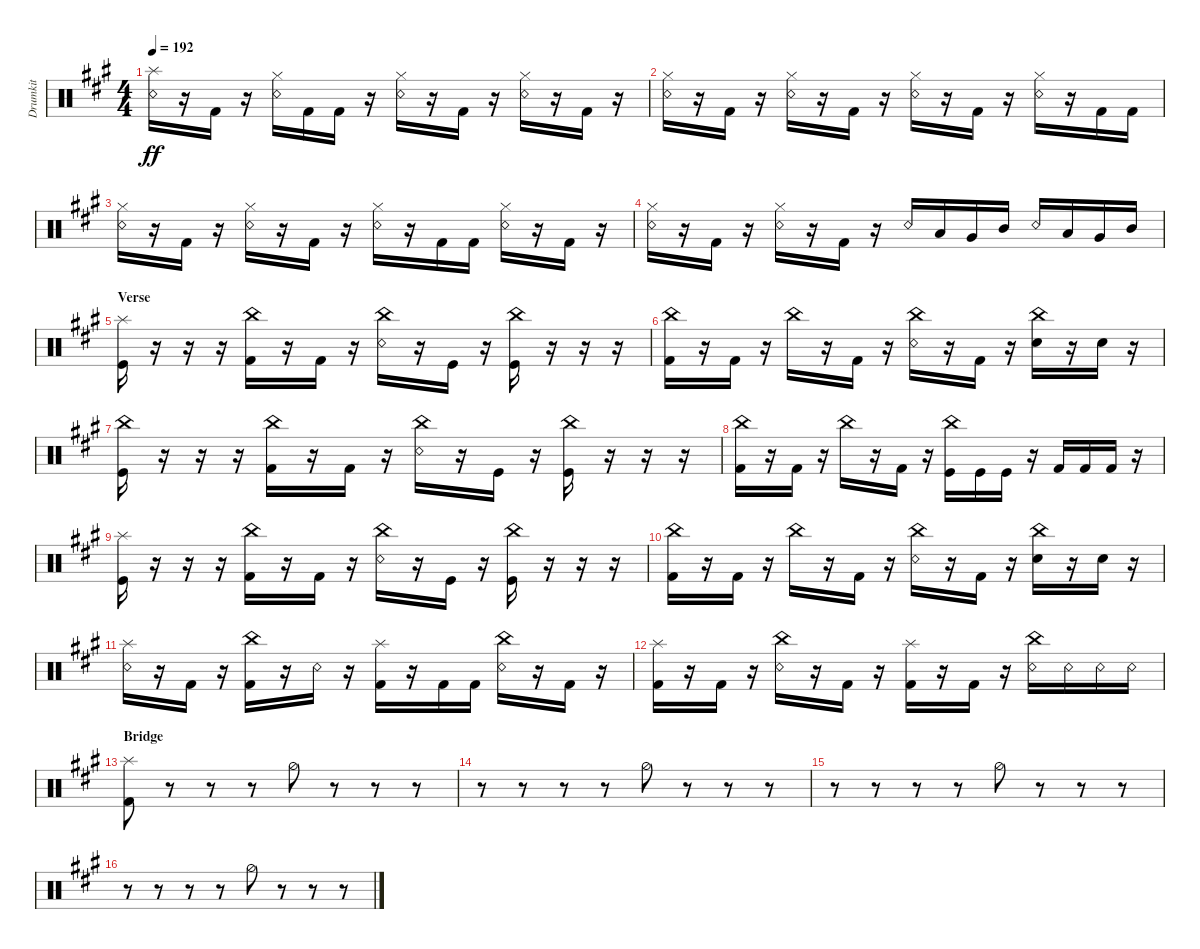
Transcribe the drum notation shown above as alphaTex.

\track ("Drumkit" "Drumkit") {instrument percussion}
\staff {score}
\articulation defaults
\ts (4 4)
\tempo 192
\clef neutral
\ks a
("Snare (rim shot)" "Splash (hit)").16{dy ff} r.16 "Kick (hit) 2".16 r.16 ("Snare (rim shot)" "Hi-Hat (closed)").16 "Kick (hit) 2".16 "Kick (hit) 2".16 r.16 ("Snare (rim shot)" "Hi-Hat (closed)").16 r.16 "Kick (hit) 2".16 r.16 ("Snare (rim shot)" "Hi-Hat (closed)").16 r.16 "Kick (hit) 2".16 r.16 |
("Snare (rim shot)" "Hi-Hat (closed)").16 r.16 "Kick (hit) 2".16 r.16 ("Snare (rim shot)" "Hi-Hat (closed)").16 r.16 "Kick (hit) 2".16 r.16 ("Snare (rim shot)" "Hi-Hat (closed)").16 r.16 "Kick (hit) 2".16 r.16 ("Snare (rim shot)" "Hi-Hat (closed)").16 r.16 "Kick (hit) 2".16 "Kick (hit) 2".16 |
("Snare (rim shot)" "Hi-Hat (closed)").16 r.16 "Kick (hit) 2".16 r.16 ("Snare (rim shot)" "Hi-Hat (closed)").16 r.16 "Kick (hit) 2".16 r.16 ("Snare (rim shot)" "Hi-Hat (closed)").16 r.16 "Kick (hit) 2".16 "Kick (hit) 2".16 ("Snare (rim shot)" "Hi-Hat (closed)").16 r.16 "Kick (hit) 2".16 r.16 |
("Snare (rim shot)" "Hi-Hat (closed)").16 r.16 "Kick (hit) 2".16 r.16 ("Snare (rim shot)" "Hi-Hat (closed)").16 r.16 "Kick (hit) 2".16 r.16 "Snare (rim shot)".16 "Low Tom (hit)".16 "Very Low Tom (hit)".16 "Mid Tom (hit)".16 "Snare (rim shot)".16 "Low Tom (hit)".16 "Very Low Tom (hit)".16 "Mid Tom (hit)".16 |
\section ("" "Verse")
("Kick (hit)" "Splash (hit)").16 r.16 r.16 r.16 ("China (hit)" "Kick (hit) 2").16 r.16 "Kick (hit) 2".16 r.16 ("China (hit)" "Snare (rim shot)").16 r.16 "Kick (hit)".16 r.16 ("Kick (hit)" "China (hit)").16 r.16 r.16 r.16 |
("Kick (hit) 2" "China (hit)").16 r.16 "Kick (hit) 2".16 r.16 "China (hit)".16 r.16 "Kick (hit) 2".16 r.16 ("China (hit)" "Snare (rim shot)").16 r.16 "Kick (hit) 2".16 r.16 ("China (hit)" "Snare (hit) 2").16 r.16 "Snare (hit) 2".16 r.16 |
("China (hit)" "Kick (hit)").16 r.16 r.16 r.16 ("China (hit)" "Kick (hit) 2").16 r.16 "Kick (hit) 2".16 r.16 ("China (hit)" "Snare (rim shot)").16 r.16 "Kick (hit)".16 r.16 ("Kick (hit)" "China (hit)").16 r.16 r.16 r.16 |
("Kick (hit) 2" "China (hit)").16 r.16 "Kick (hit) 2".16 r.16 "China (hit)".16 r.16 "Kick (hit) 2".16 r.16 ("Kick (hit)" "China (hit)").16 "Kick (hit)".16 "Kick (hit)".16 r.16 "Kick (hit) 2".16 "Kick (hit) 2".16 "Kick (hit) 2".16 r.16 |
("Kick (hit)" "Splash (hit)").16 r.16 r.16 r.16 ("China (hit)" "Kick (hit) 2").16 r.16 "Kick (hit) 2".16 r.16 ("China (hit)" "Snare (rim shot)").16 r.16 "Kick (hit)".16 r.16 ("Kick (hit)" "China (hit)").16 r.16 r.16 r.16 |
("Kick (hit) 2" "China (hit)").16 r.16 "Kick (hit) 2".16 r.16 "China (hit)".16 r.16 "Kick (hit) 2".16 r.16 ("China (hit)" "Snare (rim shot)").16 r.16 "Kick (hit) 2".16 r.16 ("China (hit)" "Snare (hit) 2").16 r.16 "Snare (hit) 2".16 r.16 |
("Snare (rim shot)" "Splash (hit)").16 r.16 "Kick (hit) 2".16 r.16 ("Kick (hit) 2" "China (hit)").16 r.16 "Snare (rim shot)".16 r.16 ("Kick (hit) 2" "Splash (hit)").16 r.16 "Kick (hit) 2".16 "Kick (hit) 2".16 ("Snare (rim shot)" "China (hit)").16 r.16 "Kick (hit) 2".16 r.16 |
("Kick (hit) 2" "Splash (hit)").16 r.16 "Kick (hit) 2".16 r.16 ("Snare (rim shot)" "China (hit)").16 r.16 "Kick (hit) 2".16 r.16 ("Kick (hit) 2" "Splash (hit)").16 r.16 "Kick (hit) 2".16 r.16 ("Snare (rim shot)" "China (hit)").16 "Snare (rim shot)".16 "Snare (rim shot)".16 "Snare (rim shot)".16 |
\section ("" "Bridge")
("Splash (hit)" "Kick (hit) 2").8 r.8 r.8 r.8 "Hi-Hat (half)".8 r.8 r.8 r.8 |
r.8 r.8 r.8 r.8 "Hi-Hat (half)".8 r.8 r.8 r.8 |
r.8 r.8 r.8 r.8 "Hi-Hat (half)".8 r.8 r.8 r.8 |
r.8 r.8 r.8 r.8 "Hi-Hat (half)".8 r.8 r.8 r.8
